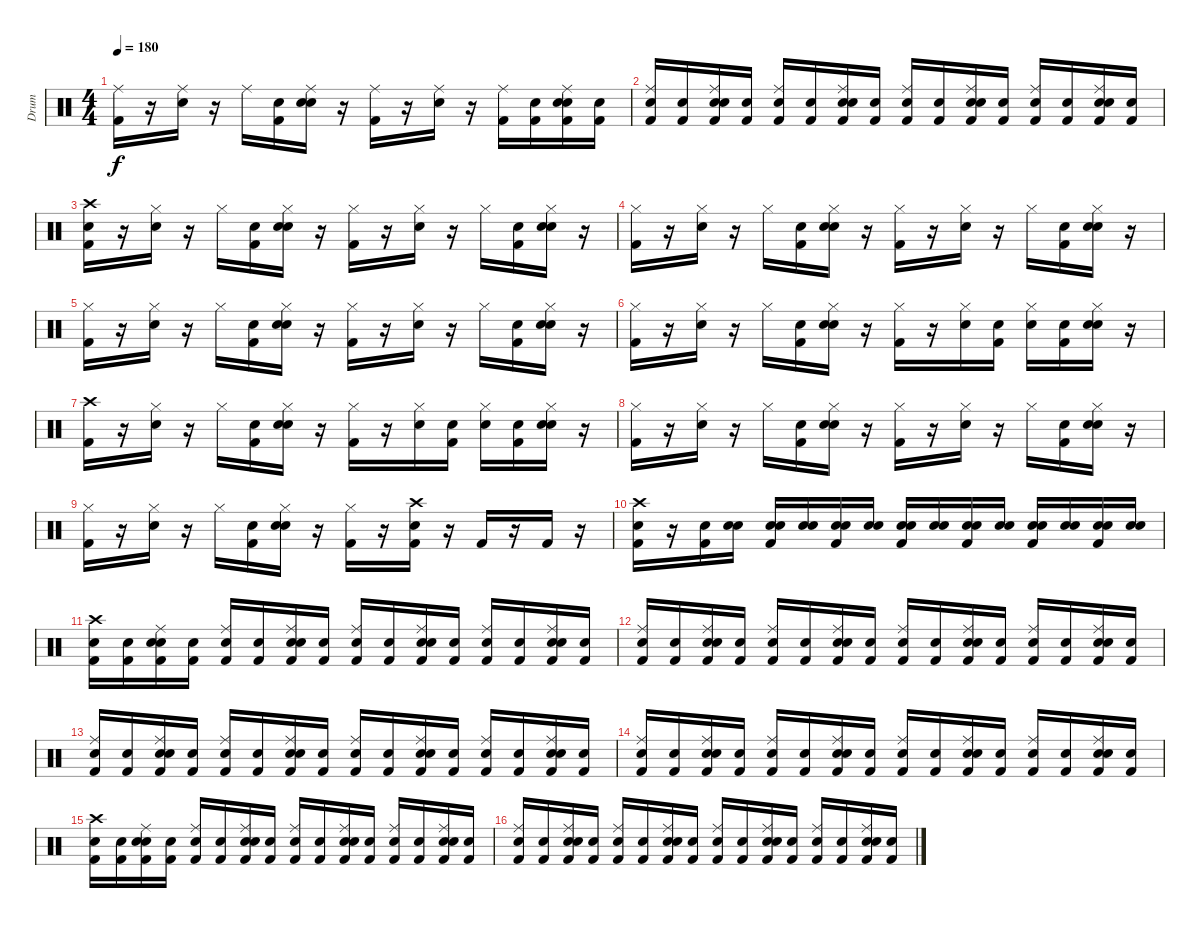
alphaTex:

\track ("Drum" "Drum") {instrument percussion}
\staff {score}
\articulation defaults
\ts (4 4)
\tempo 180
\clef neutral
\ks c
("Kick (hit) 2" "Ride (middle)").16{dy f} r.16 ("Snare (hit) 2" "Ride (middle)").16 r.16 "Ride (middle)".16 ("Snare (hit)" "Kick (hit) 2").16 ("Snare (hit)" "Snare (hit) 2" "Ride (middle)").16 r.16 ("Kick (hit) 2" "Ride (middle)").16 r.16 ("Snare (hit) 2" "Ride (middle)").16 r.16 ("Kick (hit) 2" "Ride (middle)").16 ("Snare (hit)" "Kick (hit) 2").16 ("Snare (hit)" "Kick (hit) 2" "Snare (hit) 2" "Ride (middle)").16 ("Snare (hit)" "Kick (hit) 2").16 |
("Snare (hit)" "Kick (hit) 2" "Ride (middle)").16 ("Snare (hit)" "Kick (hit) 2").16 ("Snare (hit)" "Snare (hit) 2" "Kick (hit) 2" "Ride (middle)").16 ("Snare (hit)" "Kick (hit) 2").16 ("Snare (hit)" "Kick (hit) 2" "Ride (middle)").16 ("Snare (hit)" "Kick (hit) 2").16 ("Snare (hit)" "Snare (hit) 2" "Kick (hit) 2" "Ride (middle)").16 ("Snare (hit)" "Kick (hit) 2").16 ("Snare (hit)" "Kick (hit) 2" "Ride (middle)").16 ("Snare (hit)" "Kick (hit) 2").16 ("Snare (hit)" "Snare (hit) 2" "Kick (hit) 2" "Ride (middle)").16 ("Snare (hit)" "Kick (hit) 2").16 ("Snare (hit)" "Kick (hit) 2" "Ride (middle)").16 ("Snare (hit)" "Kick (hit) 2").16 ("Snare (hit)" "Snare (hit) 2" "Kick (hit) 2" "Ride (middle)").16 ("Snare (hit)" "Kick (hit) 2").16 |
("Snare (hit)" "Kick (hit) 2" "Crash high (hit)").16 r.16 ("Snare (hit) 2" "Hi-Hat (closed)").16 r.16 "Hi-Hat (closed)".16 ("Snare (hit)" "Kick (hit) 2").16 ("Snare (hit)" "Snare (hit) 2" "Hi-Hat (closed)").16 r.16 ("Kick (hit) 2" "Hi-Hat (closed)").16 r.16 ("Snare (hit) 2" "Hi-Hat (closed)").16 r.16 "Hi-Hat (closed)".16 ("Snare (hit)" "Kick (hit) 2").16 ("Snare (hit)" "Snare (hit) 2" "Hi-Hat (closed)").16 r.16 |
("Kick (hit) 2" "Hi-Hat (closed)").16 r.16 ("Snare (hit) 2" "Hi-Hat (closed)").16 r.16 "Hi-Hat (closed)".16 ("Snare (hit)" "Kick (hit) 2").16 ("Snare (hit)" "Snare (hit) 2" "Hi-Hat (closed)").16 r.16 ("Kick (hit) 2" "Hi-Hat (closed)").16 r.16 ("Snare (hit) 2" "Hi-Hat (closed)").16 r.16 "Hi-Hat (closed)".16 ("Snare (hit)" "Kick (hit) 2").16 ("Snare (hit)" "Snare (hit) 2" "Hi-Hat (closed)").16 r.16 |
("Kick (hit) 2" "Hi-Hat (closed)").16 r.16 ("Snare (hit) 2" "Hi-Hat (closed)").16 r.16 "Hi-Hat (closed)".16 ("Snare (hit)" "Kick (hit) 2").16 ("Snare (hit)" "Snare (hit) 2" "Hi-Hat (closed)").16 r.16 ("Kick (hit) 2" "Hi-Hat (closed)").16 r.16 ("Snare (hit) 2" "Hi-Hat (closed)").16 r.16 "Hi-Hat (closed)".16 ("Snare (hit)" "Kick (hit) 2").16 ("Snare (hit)" "Snare (hit) 2" "Hi-Hat (closed)").16 r.16 |
("Kick (hit) 2" "Hi-Hat (closed)").16 r.16 ("Snare (hit) 2" "Hi-Hat (closed)").16 r.16 "Hi-Hat (closed)".16 ("Snare (hit)" "Kick (hit) 2").16 ("Snare (hit)" "Snare (hit) 2" "Hi-Hat (closed)").16 r.16 ("Kick (hit) 2" "Hi-Hat (closed)").16 r.16 ("Snare (hit) 2" "Hi-Hat (closed)").16 ("Snare (hit)" "Kick (hit) 2").16 ("Snare (hit)" "Hi-Hat (closed)").16 ("Snare (hit)" "Kick (hit) 2").16 ("Snare (hit)" "Snare (hit) 2" "Hi-Hat (closed)").16 r.16 |
("Kick (hit) 2" "Crash high (hit)").16 r.16 ("Snare (hit) 2" "Hi-Hat (closed)").16 r.16 "Hi-Hat (closed)".16 ("Snare (hit)" "Kick (hit) 2").16 ("Snare (hit)" "Snare (hit) 2" "Hi-Hat (closed)").16 r.16 ("Kick (hit) 2" "Hi-Hat (closed)").16 r.16 ("Snare (hit) 2" "Hi-Hat (closed)").16 ("Snare (hit)" "Kick (hit) 2").16 ("Snare (hit)" "Hi-Hat (closed)").16 ("Snare (hit)" "Kick (hit) 2").16 ("Snare (hit)" "Snare (hit) 2" "Hi-Hat (closed)").16 r.16 |
("Kick (hit) 2" "Hi-Hat (closed)").16 r.16 ("Snare (hit) 2" "Hi-Hat (closed)").16 r.16 "Hi-Hat (closed)".16 ("Snare (hit)" "Kick (hit) 2").16 ("Snare (hit)" "Snare (hit) 2" "Hi-Hat (closed)").16 r.16 ("Kick (hit) 2" "Hi-Hat (closed)").16 r.16 ("Snare (hit) 2" "Hi-Hat (closed)").16 r.16 "Hi-Hat (closed)".16 ("Snare (hit)" "Kick (hit) 2").16 ("Snare (hit)" "Snare (hit) 2" "Hi-Hat (closed)").16 r.16 |
("Kick (hit) 2" "Hi-Hat (closed)").16 r.16 ("Snare (hit) 2" "Hi-Hat (closed)").16 r.16 "Hi-Hat (closed)".16 ("Snare (hit)" "Kick (hit) 2").16 ("Snare (hit)" "Snare (hit) 2" "Hi-Hat (closed)").16 r.16 ("Kick (hit) 2" "Hi-Hat (closed)").16 r.16 ("Snare (hit) 2" "Kick (hit) 2" "Crash high (hit)").16 r.16 "Kick (hit) 2".16 r.16 "Kick (hit) 2".16 r.16 |
("Snare (hit) 2" "Kick (hit) 2" "Crash high (hit)").16 r.16 ("Snare (hit) 2" "Kick (hit) 2").16 ("Snare (hit)" "Snare (hit) 2").16 ("Snare (hit)" "Snare (hit) 2" "Kick (hit) 2").16 ("Snare (hit)" "Snare (hit) 2").16 ("Snare (hit)" "Snare (hit) 2" "Kick (hit) 2").16 ("Snare (hit)" "Snare (hit) 2").16 ("Snare (hit)" "Snare (hit) 2" "Kick (hit) 2").16 ("Snare (hit)" "Snare (hit) 2").16 ("Snare (hit)" "Snare (hit) 2" "Kick (hit) 2").16 ("Snare (hit)" "Snare (hit) 2").16 ("Snare (hit)" "Snare (hit) 2" "Kick (hit) 2").16 ("Snare (hit)" "Snare (hit) 2").16 ("Snare (hit)" "Snare (hit) 2" "Kick (hit) 2").16 ("Snare (hit)" "Snare (hit) 2").16 |
("Snare (hit)" "Kick (hit) 2" "Crash high (hit)").16 ("Snare (hit)" "Kick (hit) 2").16 ("Snare (hit)" "Snare (hit) 2" "Kick (hit) 2" "Ride (middle)").16 ("Snare (hit)" "Kick (hit) 2").16 ("Snare (hit)" "Kick (hit) 2" "Ride (middle)").16 ("Snare (hit)" "Kick (hit) 2").16 ("Snare (hit)" "Snare (hit) 2" "Kick (hit) 2" "Ride (middle)").16 ("Snare (hit)" "Kick (hit) 2").16 ("Snare (hit)" "Kick (hit) 2" "Ride (middle)").16 ("Snare (hit)" "Kick (hit) 2").16 ("Snare (hit)" "Snare (hit) 2" "Kick (hit) 2" "Ride (middle)").16 ("Snare (hit)" "Kick (hit) 2").16 ("Snare (hit)" "Kick (hit) 2" "Ride (middle)").16 ("Snare (hit)" "Kick (hit) 2").16 ("Snare (hit)" "Snare (hit) 2" "Kick (hit) 2" "Ride (middle)").16 ("Snare (hit)" "Kick (hit) 2").16 |
("Snare (hit)" "Kick (hit) 2" "Ride (middle)").16 ("Snare (hit)" "Kick (hit) 2").16 ("Snare (hit)" "Snare (hit) 2" "Kick (hit) 2" "Ride (middle)").16 ("Snare (hit)" "Kick (hit) 2").16 ("Snare (hit)" "Kick (hit) 2" "Ride (middle)").16 ("Snare (hit)" "Kick (hit) 2").16 ("Snare (hit)" "Snare (hit) 2" "Kick (hit) 2" "Ride (middle)").16 ("Snare (hit)" "Kick (hit) 2").16 ("Snare (hit)" "Kick (hit) 2" "Ride (middle)").16 ("Snare (hit)" "Kick (hit) 2").16 ("Snare (hit)" "Snare (hit) 2" "Kick (hit) 2" "Ride (middle)").16 ("Snare (hit)" "Kick (hit) 2").16 ("Snare (hit)" "Kick (hit) 2" "Ride (middle)").16 ("Snare (hit)" "Kick (hit) 2").16 ("Snare (hit)" "Snare (hit) 2" "Kick (hit) 2" "Ride (middle)").16 ("Snare (hit)" "Kick (hit) 2").16 |
("Snare (hit)" "Kick (hit) 2" "Ride (middle)").16 ("Snare (hit)" "Kick (hit) 2").16 ("Snare (hit)" "Snare (hit) 2" "Kick (hit) 2" "Ride (middle)").16 ("Snare (hit)" "Kick (hit) 2").16 ("Snare (hit)" "Kick (hit) 2" "Ride (middle)").16 ("Snare (hit)" "Kick (hit) 2").16 ("Snare (hit)" "Snare (hit) 2" "Kick (hit) 2" "Ride (middle)").16 ("Snare (hit)" "Kick (hit) 2").16 ("Snare (hit)" "Kick (hit) 2" "Ride (middle)").16 ("Snare (hit)" "Kick (hit) 2").16 ("Snare (hit)" "Snare (hit) 2" "Kick (hit) 2" "Ride (middle)").16 ("Snare (hit)" "Kick (hit) 2").16 ("Snare (hit)" "Kick (hit) 2" "Ride (middle)").16 ("Snare (hit)" "Kick (hit) 2").16 ("Snare (hit)" "Snare (hit) 2" "Kick (hit) 2" "Ride (middle)").16 ("Snare (hit)" "Kick (hit) 2").16 |
("Snare (hit)" "Kick (hit) 2" "Ride (middle)").16 ("Snare (hit)" "Kick (hit) 2").16 ("Snare (hit)" "Snare (hit) 2" "Kick (hit) 2" "Ride (middle)").16 ("Snare (hit)" "Kick (hit) 2").16 ("Snare (hit)" "Kick (hit) 2" "Ride (middle)").16 ("Snare (hit)" "Kick (hit) 2").16 ("Snare (hit)" "Snare (hit) 2" "Kick (hit) 2" "Ride (middle)").16 ("Snare (hit)" "Kick (hit) 2").16 ("Snare (hit)" "Kick (hit) 2" "Ride (middle)").16 ("Snare (hit)" "Kick (hit) 2").16 ("Snare (hit)" "Snare (hit) 2" "Kick (hit) 2" "Ride (middle)").16 ("Snare (hit)" "Kick (hit) 2").16 ("Snare (hit)" "Kick (hit) 2" "Ride (middle)").16 ("Snare (hit)" "Kick (hit) 2").16 ("Snare (hit)" "Snare (hit) 2" "Kick (hit) 2" "Ride (middle)").16 ("Snare (hit)" "Kick (hit) 2").16 |
("Snare (hit)" "Kick (hit) 2" "Crash high (hit)").16 ("Snare (hit)" "Kick (hit) 2").16 ("Snare (hit)" "Snare (hit) 2" "Kick (hit) 2" "Ride (middle)").16 ("Snare (hit)" "Kick (hit) 2").16 ("Snare (hit)" "Kick (hit) 2" "Ride (middle)").16 ("Snare (hit)" "Kick (hit) 2").16 ("Snare (hit)" "Snare (hit) 2" "Kick (hit) 2" "Ride (middle)").16 ("Snare (hit)" "Kick (hit) 2").16 ("Snare (hit)" "Kick (hit) 2" "Ride (middle)").16 ("Snare (hit)" "Kick (hit) 2").16 ("Snare (hit)" "Snare (hit) 2" "Kick (hit) 2" "Ride (middle)").16 ("Snare (hit)" "Kick (hit) 2").16 ("Snare (hit)" "Kick (hit) 2" "Ride (middle)").16 ("Snare (hit)" "Kick (hit) 2").16 ("Snare (hit)" "Snare (hit) 2" "Kick (hit) 2" "Ride (middle)").16 ("Snare (hit)" "Kick (hit) 2").16 |
("Snare (hit)" "Kick (hit) 2" "Ride (middle)").16 ("Snare (hit)" "Kick (hit) 2").16 ("Snare (hit)" "Snare (hit) 2" "Kick (hit) 2" "Ride (middle)").16 ("Snare (hit)" "Kick (hit) 2").16 ("Snare (hit)" "Kick (hit) 2" "Ride (middle)").16 ("Snare (hit)" "Kick (hit) 2").16 ("Snare (hit)" "Snare (hit) 2" "Kick (hit) 2" "Ride (middle)").16 ("Snare (hit)" "Kick (hit) 2").16 ("Snare (hit)" "Kick (hit) 2" "Ride (middle)").16 ("Snare (hit)" "Kick (hit) 2").16 ("Snare (hit)" "Snare (hit) 2" "Kick (hit) 2" "Ride (middle)").16 ("Snare (hit)" "Kick (hit) 2").16 ("Snare (hit)" "Kick (hit) 2" "Ride (middle)").16 ("Snare (hit)" "Kick (hit) 2").16 ("Snare (hit)" "Snare (hit) 2" "Kick (hit) 2" "Ride (middle)").16 ("Snare (hit)" "Kick (hit) 2").16
